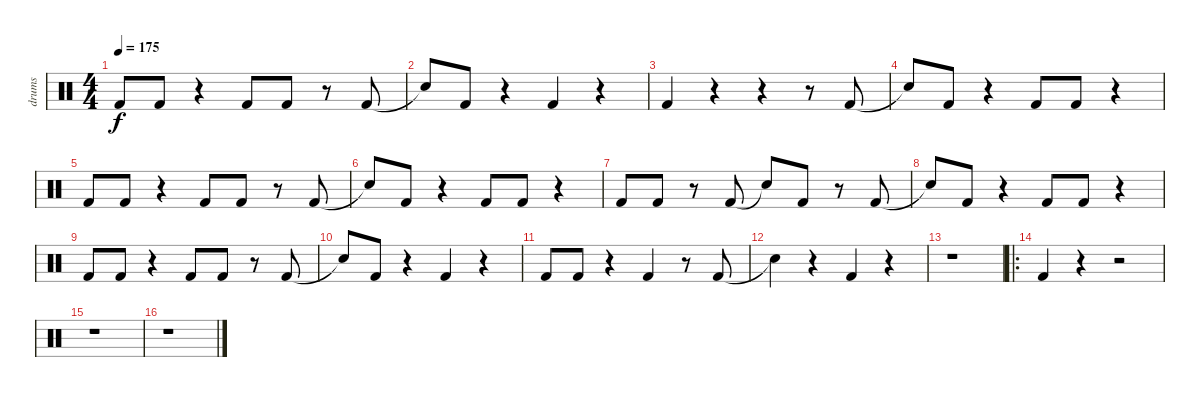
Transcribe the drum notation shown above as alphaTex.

\track ("drums" "drums") {instrument percussion}
\staff {score}
\articulation defaults
\ts (4 4)
\tempo 175
\clef neutral
\ks c "Kick (hit) 2".8{dy f} "Kick (hit) 2".8
r.4 "Kick (hit) 2".8 "Kick (hit) 2".8 r.8 "Kick (hit) 2".8 |
"Snare (hit)"{t}.8 "Kick (hit) 2".8 r.4 "Kick (hit) 2".4 r.4 |
"Kick (hit) 2".4 r.4 r.4 r.8 "Kick (hit) 2".8 |
"Snare (hit)"{t}.8 "Kick (hit) 2".8 r.4 "Kick (hit) 2".8 "Kick (hit) 2".8 r.4 |
"Kick (hit) 2".8 "Kick (hit) 2".8 r.4 "Kick (hit) 2".8 "Kick (hit) 2".8 r.8 "Kick (hit) 2".8 |
"Snare (hit)"{t}.8 "Kick (hit) 2".8 r.4 "Kick (hit) 2".8 "Kick (hit) 2".8 r.4 |
"Kick (hit) 2".8 "Kick (hit) 2".8 r.8 "Kick (hit) 2".8 "Snare (hit)"{t}.8 "Kick (hit) 2".8 r.8 "Kick (hit) 2".8 |
"Snare (hit)"{t}.8 "Kick (hit) 2".8 r.4 "Kick (hit) 2".8 "Kick (hit) 2".8 r.4 |
"Kick (hit) 2".8 "Kick (hit) 2".8 r.4 "Kick (hit) 2".8 "Kick (hit) 2".8 r.8 "Kick (hit) 2".8 |
"Snare (hit)"{t}.8 "Kick (hit) 2".8 r.4 "Kick (hit) 2".4 r.4 |
"Kick (hit) 2".8 "Kick (hit) 2".8 r.4 "Kick (hit) 2".4 r.8 "Kick (hit) 2".8 |
"Snare (hit)"{t}.4 r.4 "Kick (hit) 2".4 r.4 |
r.1 |
\ro "Kick (hit) 2".4
r.4 r.2 |
r.1 |
r.1
